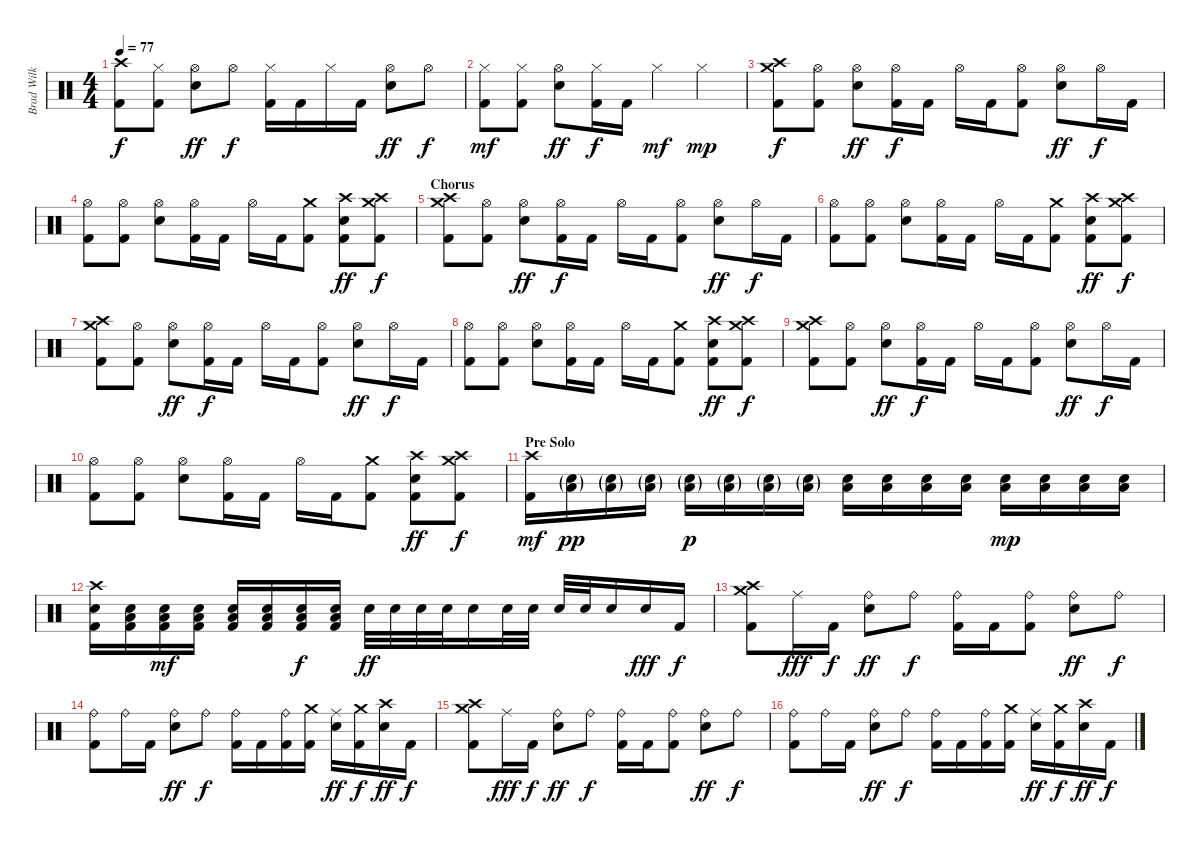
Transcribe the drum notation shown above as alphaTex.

\track ("Brad Wilk / Drums" "Brad Wilk ") {instrument percussion}
\staff {score}
\articulation defaults
\ts (4 4)
\tempo 77
\clef neutral
\ks c
("Crash high (hit)" "Kick (hit) 2").8{dy f} ("Hi-Hat (closed)" "Kick (hit) 2").8 ("Hi-Hat (open)" "Snare (hit) 2").8{dy ff} "Hi-Hat (open)".8{dy f} ("Hi-Hat (closed)" "Kick (hit) 2").16 "Kick (hit) 2".16 "Hi-Hat (closed)".16 "Kick (hit) 2".16 ("Hi-Hat (open)" "Snare (hit) 2").8{dy ff} "Hi-Hat (open)".8{dy f} |
("Hi-Hat (closed)" "Kick (hit) 2").8{dy mf} ("Hi-Hat (closed)" "Kick (hit) 2").8 ("Hi-Hat (open)" "Snare (hit) 2").8{dy ff} ("Hi-Hat (closed)" "Kick (hit) 2").16{dy f} "Kick (hit) 2".16 "Hi-Hat (closed)".4{dy mf} "Hi-Hat (closed)".4{dy mp} |
("Crash medium (hit)" "Crash high (hit)" "Kick (hit) 2").8{dy f} ("Hi-Hat (open)" "Kick (hit) 2").8 ("Hi-Hat (open)" "Snare (hit) 2").8{dy ff} ("Hi-Hat (open)" "Kick (hit) 2").16{dy f} "Kick (hit) 2".16 "Hi-Hat (open)".16 "Kick (hit) 2".16 ("Hi-Hat (open)" "Kick (hit) 2").8 ("Hi-Hat (open)" "Snare (hit) 2").8{dy ff} "Hi-Hat (open)".16{dy f} "Kick (hit) 2".16 |
("Hi-Hat (open)" "Kick (hit) 2").8 ("Hi-Hat (open)" "Kick (hit) 2").8 ("Hi-Hat (open)" "Snare (hit) 2").8 ("Hi-Hat (open)" "Kick (hit) 2").16 "Kick (hit) 2".16 "Hi-Hat (open)".16 "Kick (hit) 2".16 ("Crash medium (hit)" "Kick (hit) 2").8 ("Crash high (hit)" "Snare (hit) 2" "Kick (hit) 2").8{dy ff} ("Crash medium (hit)" "Crash high (hit)" "Kick (hit) 2").8{dy f} |
\section ("" "Chorus")
("Crash medium (hit)" "Crash high (hit)" "Kick (hit) 2").8 ("Hi-Hat (open)" "Kick (hit) 2").8 ("Hi-Hat (open)" "Snare (hit) 2").8{dy ff} ("Hi-Hat (open)" "Kick (hit) 2").16{dy f} "Kick (hit) 2".16 "Hi-Hat (open)".16 "Kick (hit) 2".16 ("Hi-Hat (open)" "Kick (hit) 2").8 ("Hi-Hat (open)" "Snare (hit) 2").8{dy ff} "Hi-Hat (open)".16{dy f} "Kick (hit) 2".16 |
("Hi-Hat (open)" "Kick (hit) 2").8 ("Hi-Hat (open)" "Kick (hit) 2").8 ("Hi-Hat (open)" "Snare (hit) 2").8 ("Hi-Hat (open)" "Kick (hit) 2").16 "Kick (hit) 2".16 "Hi-Hat (open)".16 "Kick (hit) 2".16 ("Crash medium (hit)" "Kick (hit) 2").8 ("Crash high (hit)" "Snare (hit) 2" "Kick (hit) 2").8{dy ff} ("Crash medium (hit)" "Crash high (hit)" "Kick (hit) 2").8{dy f} |
("Crash medium (hit)" "Crash high (hit)" "Kick (hit) 2").8 ("Hi-Hat (open)" "Kick (hit) 2").8 ("Hi-Hat (open)" "Snare (hit) 2").8{dy ff} ("Hi-Hat (open)" "Kick (hit) 2").16{dy f} "Kick (hit) 2".16 "Hi-Hat (open)".16 "Kick (hit) 2".16 ("Hi-Hat (open)" "Kick (hit) 2").8 ("Hi-Hat (open)" "Snare (hit) 2").8{dy ff} "Hi-Hat (open)".16{dy f} "Kick (hit) 2".16 |
("Hi-Hat (open)" "Kick (hit) 2").8 ("Hi-Hat (open)" "Kick (hit) 2").8 ("Hi-Hat (open)" "Snare (hit) 2").8 ("Hi-Hat (open)" "Kick (hit) 2").16 "Kick (hit) 2".16 "Hi-Hat (open)".16 "Kick (hit) 2".16 ("Crash medium (hit)" "Kick (hit) 2").8 ("Crash high (hit)" "Snare (hit) 2" "Kick (hit) 2").8{dy ff} ("Crash medium (hit)" "Crash high (hit)" "Kick (hit) 2").8{dy f} |
("Crash medium (hit)" "Crash high (hit)" "Kick (hit) 2").8 ("Hi-Hat (open)" "Kick (hit) 2").8 ("Hi-Hat (open)" "Snare (hit) 2").8{dy ff} ("Hi-Hat (open)" "Kick (hit) 2").16{dy f} "Kick (hit) 2".16 "Hi-Hat (open)".16 "Kick (hit) 2".16 ("Hi-Hat (open)" "Kick (hit) 2").8 ("Hi-Hat (open)" "Snare (hit) 2").8{dy ff} "Hi-Hat (open)".16{dy f} "Kick (hit) 2".16 |
("Hi-Hat (open)" "Kick (hit) 2").8 ("Hi-Hat (open)" "Kick (hit) 2").8 ("Hi-Hat (open)" "Snare (hit) 2").8 ("Hi-Hat (open)" "Kick (hit) 2").16 "Kick (hit) 2".16 "Hi-Hat (open)".16 "Kick (hit) 2".16 ("Crash medium (hit)" "Kick (hit) 2").8 ("Crash high (hit)" "Snare (hit) 2" "Kick (hit) 2").8{dy ff} ("Crash medium (hit)" "Crash high (hit)" "Kick (hit) 2").8{dy f} |
\section ("" "Pre Solo")
("Crash high (hit)" "Kick (hit) 2").16{dy mf} ("Snare (hit) 2"{g} "Low Floor Tom (hit)"{g}).16{dy pp} ("Snare (hit) 2"{g} "Low Floor Tom (hit)"{g}).16 ("Snare (hit) 2"{g} "Low Floor Tom (hit)"{g}).16 ("Snare (hit) 2"{g} "Low Floor Tom (hit)"{g}).16{dy p} ("Snare (hit) 2"{g} "Low Floor Tom (hit)"{g}).16 ("Snare (hit) 2"{g} "Low Floor Tom (hit)"{g}).16 ("Snare (hit) 2"{g} "Low Floor Tom (hit)"{g}).16 ("Snare (hit) 2" "Low Floor Tom (hit)").16 ("Snare (hit) 2" "Low Floor Tom (hit)").16 ("Snare (hit) 2" "Low Floor Tom (hit)").16 ("Snare (hit) 2" "Low Floor Tom (hit)").16 ("Snare (hit) 2" "Low Floor Tom (hit)").16{dy mp} ("Snare (hit) 2" "Low Floor Tom (hit)").16 ("Snare (hit) 2" "Low Floor Tom (hit)").16 ("Snare (hit) 2" "Low Floor Tom (hit)").16 |
("Crash high (hit)" "Snare (hit) 2" "Kick (hit) 2").16 ("Snare (hit) 2" "Low Floor Tom (hit)" "Kick (hit) 2").16 ("Snare (hit) 2" "Low Floor Tom (hit)" "Kick (hit) 2").16{dy mf} ("Snare (hit) 2" "Low Floor Tom (hit)" "Kick (hit) 2").16 ("Snare (hit) 2" "Low Floor Tom (hit)" "Kick (hit) 2").16 ("Snare (hit) 2" "Low Floor Tom (hit)" "Kick (hit) 2").16 ("Snare (hit) 2" "Low Floor Tom (hit)" "Kick (hit) 2").16{dy f} ("Snare (hit) 2" "Low Floor Tom (hit)" "Kick (hit) 2").16 "Snare (hit) 2".32{dy ff} "Snare (hit) 2".32 "Snare (hit) 2".32 "Snare (hit) 2".32 "Snare (hit) 2".16 "Snare (hit) 2".32 "Snare (hit) 2".32 "Snare (hit) 2".32 "Snare (hit) 2".32 "Snare (hit) 2".16 "Snare (hit) 2".16{dy fff} "Kick (hit) 2".16{dy f} |
("Crash medium (hit)" "Crash high (hit)" "Kick (hit) 2").8 "Ride (middle)".16{dy fff} "Kick (hit) 2".16{dy f} ("Ride (bell)" "Snare (hit) 2").8{dy ff} "Ride (bell)".8{dy f} ("Ride (bell)" "Kick (hit) 2").16 "Kick (hit) 2".16 ("Ride (bell)" "Kick (hit) 2").8 ("Ride (bell)" "Snare (hit) 2").8{dy ff} "Ride (bell)".8{dy f} |
("Ride (bell)" "Kick (hit) 2").8 "Ride (bell)".16 "Kick (hit) 2".16 ("Ride (bell)" "Snare (hit) 2").8{dy ff} "Ride (bell)".8{dy f} ("Ride (bell)" "Kick (hit) 2").16 "Kick (hit) 2".16 ("Ride (bell)" "Kick (hit) 2").16 ("Crash medium (hit)" "Kick (hit) 2").16 ("Ride (middle)" "Snare (hit) 2").16{dy ff} ("Crash medium (hit)" "Kick (hit) 2").16{dy f} ("Crash high (hit)" "Snare (hit) 2").16{dy ff} "Kick (hit) 2".16{dy f} |
("Crash medium (hit)" "Crash high (hit)" "Kick (hit) 2").8 "Ride (middle)".16{dy fff} "Kick (hit) 2".16{dy f} ("Ride (bell)" "Snare (hit) 2").8{dy ff} "Ride (bell)".8{dy f} ("Ride (bell)" "Kick (hit) 2").16 "Kick (hit) 2".16 ("Ride (bell)" "Kick (hit) 2").8 ("Ride (bell)" "Snare (hit) 2").8{dy ff} "Ride (bell)".8{dy f} |
("Ride (bell)" "Kick (hit) 2").8 "Ride (bell)".16 "Kick (hit) 2".16 ("Ride (bell)" "Snare (hit) 2").8{dy ff} "Ride (bell)".8{dy f} ("Ride (bell)" "Kick (hit) 2").16 "Kick (hit) 2".16 ("Ride (bell)" "Kick (hit) 2").16 ("Crash medium (hit)" "Kick (hit) 2").16 ("Ride (middle)" "Snare (hit) 2").16{dy ff} ("Crash medium (hit)" "Kick (hit) 2").16{dy f} ("Crash high (hit)" "Snare (hit) 2").16{dy ff} "Kick (hit) 2".16{dy f}
